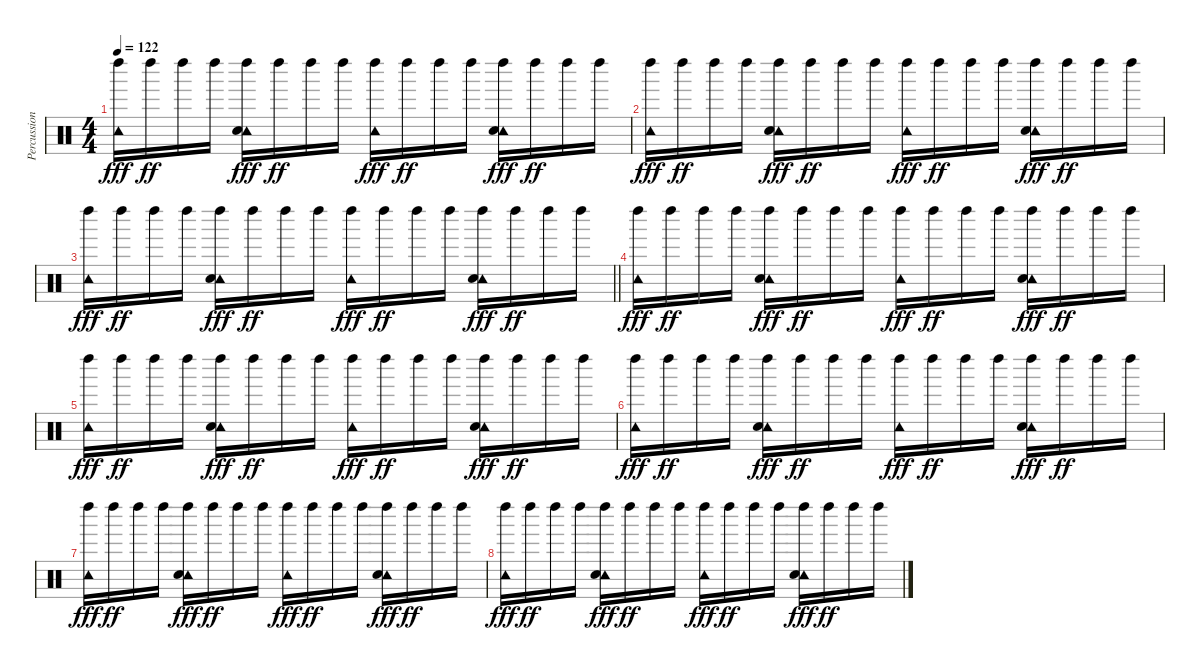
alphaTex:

\track ("Percussion" "Percussion") {instrument percussion}
\staff {score}
\articulation defaults
\ts (4 4)
\tempo 122
\clef neutral
\ks c
("Left Maraca (hit)" "Tambourine (hit)").16{dy fff} "Left Maraca (hit)".16{dy ff} "Left Maraca (hit)".16 "Left Maraca (hit)".16 ("Left Maraca (hit)" "Tambourine (hit)" "Hand Clap (hit)").16{dy fff} "Left Maraca (hit)".16{dy ff} "Left Maraca (hit)".16 "Left Maraca (hit)".16 ("Left Maraca (hit)" "Tambourine (hit)").16{dy fff} "Left Maraca (hit)".16{dy ff} "Left Maraca (hit)".16 "Left Maraca (hit)".16 ("Left Maraca (hit)" "Tambourine (hit)" "Hand Clap (hit)").16{dy fff} "Left Maraca (hit)".16{dy ff} "Left Maraca (hit)".16 "Left Maraca (hit)".16 |
("Left Maraca (hit)" "Tambourine (hit)").16{dy fff} "Left Maraca (hit)".16{dy ff} "Left Maraca (hit)".16 "Left Maraca (hit)".16 ("Left Maraca (hit)" "Tambourine (hit)" "Hand Clap (hit)").16{dy fff} "Left Maraca (hit)".16{dy ff} "Left Maraca (hit)".16 "Left Maraca (hit)".16 ("Left Maraca (hit)" "Tambourine (hit)").16{dy fff} "Left Maraca (hit)".16{dy ff} "Left Maraca (hit)".16 "Left Maraca (hit)".16 ("Left Maraca (hit)" "Tambourine (hit)" "Hand Clap (hit)").16{dy fff} "Left Maraca (hit)".16{dy ff} "Left Maraca (hit)".16 "Left Maraca (hit)".16 |
\barLineRight lightlight
("Left Maraca (hit)" "Tambourine (hit)").16{dy fff} "Left Maraca (hit)".16{dy ff} "Left Maraca (hit)".16 "Left Maraca (hit)".16 ("Left Maraca (hit)" "Tambourine (hit)" "Hand Clap (hit)").16{dy fff} "Left Maraca (hit)".16{dy ff} "Left Maraca (hit)".16 "Left Maraca (hit)".16 ("Left Maraca (hit)" "Tambourine (hit)").16{dy fff} "Left Maraca (hit)".16{dy ff} "Left Maraca (hit)".16 "Left Maraca (hit)".16 ("Left Maraca (hit)" "Tambourine (hit)" "Hand Clap (hit)").16{dy fff} "Left Maraca (hit)".16{dy ff} "Left Maraca (hit)".16 "Left Maraca (hit)".16 |
("Left Maraca (hit)" "Tambourine (hit)").16{dy fff} "Left Maraca (hit)".16{dy ff} "Left Maraca (hit)".16 "Left Maraca (hit)".16 ("Left Maraca (hit)" "Tambourine (hit)" "Hand Clap (hit)").16{dy fff} "Left Maraca (hit)".16{dy ff} "Left Maraca (hit)".16 "Left Maraca (hit)".16 ("Left Maraca (hit)" "Tambourine (hit)").16{dy fff} "Left Maraca (hit)".16{dy ff} "Left Maraca (hit)".16 "Left Maraca (hit)".16 ("Left Maraca (hit)" "Tambourine (hit)" "Hand Clap (hit)").16{dy fff} "Left Maraca (hit)".16{dy ff} "Left Maraca (hit)".16 "Left Maraca (hit)".16 |
("Left Maraca (hit)" "Tambourine (hit)").16{dy fff volume 0} "Left Maraca (hit)".16{dy ff} "Left Maraca (hit)".16 "Left Maraca (hit)".16 ("Left Maraca (hit)" "Tambourine (hit)" "Hand Clap (hit)").16{dy fff} "Left Maraca (hit)".16{dy ff} "Left Maraca (hit)".16 "Left Maraca (hit)".16 ("Left Maraca (hit)" "Tambourine (hit)").16{dy fff} "Left Maraca (hit)".16{dy ff} "Left Maraca (hit)".16 "Left Maraca (hit)".16 ("Left Maraca (hit)" "Tambourine (hit)" "Hand Clap (hit)").16{dy fff} "Left Maraca (hit)".16{dy ff} "Left Maraca (hit)".16 "Left Maraca (hit)".16 |
("Left Maraca (hit)" "Tambourine (hit)").16{dy fff} "Left Maraca (hit)".16{dy ff} "Left Maraca (hit)".16 "Left Maraca (hit)".16 ("Left Maraca (hit)" "Tambourine (hit)" "Hand Clap (hit)").16{dy fff} "Left Maraca (hit)".16{dy ff} "Left Maraca (hit)".16 "Left Maraca (hit)".16 ("Left Maraca (hit)" "Tambourine (hit)").16{dy fff} "Left Maraca (hit)".16{dy ff} "Left Maraca (hit)".16 "Left Maraca (hit)".16 ("Left Maraca (hit)" "Tambourine (hit)" "Hand Clap (hit)").16{dy fff} "Left Maraca (hit)".16{dy ff} "Left Maraca (hit)".16 "Left Maraca (hit)".16 |
("Left Maraca (hit)" "Tambourine (hit)").16{dy fff} "Left Maraca (hit)".16{dy ff} "Left Maraca (hit)".16 "Left Maraca (hit)".16 ("Left Maraca (hit)" "Tambourine (hit)" "Hand Clap (hit)").16{dy fff} "Left Maraca (hit)".16{dy ff} "Left Maraca (hit)".16 "Left Maraca (hit)".16 ("Left Maraca (hit)" "Tambourine (hit)").16{dy fff} "Left Maraca (hit)".16{dy ff} "Left Maraca (hit)".16 "Left Maraca (hit)".16 ("Left Maraca (hit)" "Tambourine (hit)" "Hand Clap (hit)").16{dy fff} "Left Maraca (hit)".16{dy ff} "Left Maraca (hit)".16 "Left Maraca (hit)".16 |
("Left Maraca (hit)" "Tambourine (hit)").16{dy fff} "Left Maraca (hit)".16{dy ff} "Left Maraca (hit)".16 "Left Maraca (hit)".16 ("Left Maraca (hit)" "Tambourine (hit)" "Hand Clap (hit)").16{dy fff} "Left Maraca (hit)".16{dy ff} "Left Maraca (hit)".16 "Left Maraca (hit)".16 ("Left Maraca (hit)" "Tambourine (hit)").16{dy fff} "Left Maraca (hit)".16{dy ff} "Left Maraca (hit)".16 "Left Maraca (hit)".16 ("Left Maraca (hit)" "Tambourine (hit)" "Hand Clap (hit)").16{dy fff} "Left Maraca (hit)".16{dy ff} "Left Maraca (hit)".16 "Left Maraca (hit)".16
